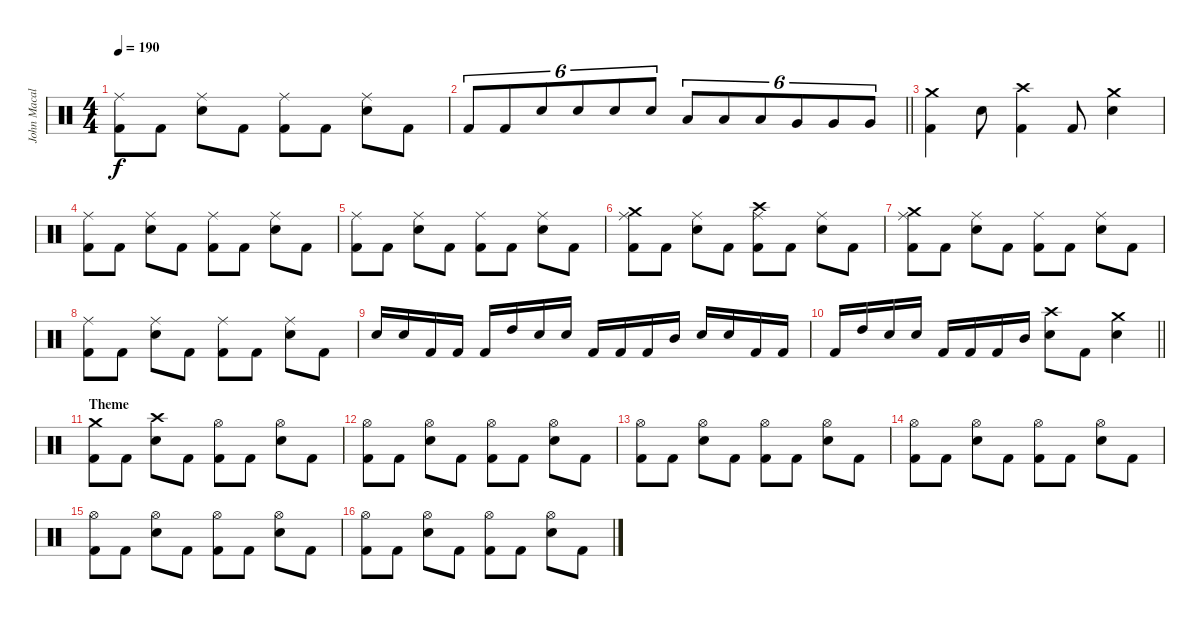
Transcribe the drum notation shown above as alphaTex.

\track ("John Macaluso" "John Macal") {instrument percussion}
\staff {score}
\articulation defaults
\ts (4 4)
\tempo 190
\clef neutral
\ks c
("Ride (middle)" "Kick (hit) 2").8{dy f} "Kick (hit) 2".8 ("Ride (middle)" "Snare (hit) 2").8 "Kick (hit) 2".8 ("Ride (middle)" "Kick (hit) 2").8 "Kick (hit) 2".8 ("Ride (middle)" "Snare (hit) 2").8 "Kick (hit) 2".8 |
\barLineRight lightlight "Kick (hit) 2".8{tu (6 4)} "Kick (hit) 2".8{tu (6 4)} "Snare (hit) 2".8{tu (6 4)} "Snare (hit) 2".8{tu (6 4)} "Snare (hit) 2".8{tu (6 4)} "Snare (hit) 2".8{tu (6 4)} "Low Tom (hit)".8{tu (6 4)} "Low Tom (hit)".8{tu (6 4)} "Low Tom (hit)".8{tu (6 4)} "Very Low Tom (hit)".8{tu (6 4)} "Very Low Tom (hit)".8{tu (6 4)} "Very Low Tom (hit)".8{tu (6 4)}
|
("Crash medium (hit)" "Kick (hit) 2").4 "Snare (hit) 2".8 ("Crash high (hit)" "Kick (hit) 2").4 "Kick (hit) 2".8 ("Crash medium (hit)" "Snare (hit) 2").4 |
("Ride (middle)" "Kick (hit) 2").8 "Kick (hit) 2".8 ("Ride (middle)" "Snare (hit) 2").8 "Kick (hit) 2".8 ("Ride (middle)" "Kick (hit) 2").8 "Kick (hit) 2".8 ("Ride (middle)" "Snare (hit) 2").8 "Kick (hit) 2".8 |
("Ride (middle)" "Kick (hit) 2").8 "Kick (hit) 2".8 ("Ride (middle)" "Snare (hit) 2").8 "Kick (hit) 2".8 ("Ride (middle)" "Kick (hit) 2").8 "Kick (hit) 2".8 ("Ride (middle)" "Snare (hit) 2").8 "Kick (hit) 2".8 |
("Crash medium (hit)" "Ride (middle)" "Kick (hit) 2").8 "Kick (hit) 2".8 ("Ride (middle)" "Snare (hit) 2").8 "Kick (hit) 2".8 ("Crash high (hit)" "Ride (middle)" "Kick (hit) 2").8 "Kick (hit) 2".8 ("Ride (middle)" "Snare (hit) 2").8 "Kick (hit) 2".8 |
("Crash medium (hit)" "Ride (middle)" "Kick (hit) 2").8 "Kick (hit) 2".8 ("Ride (middle)" "Snare (hit) 2").8 "Kick (hit) 2".8 ("Ride (middle)" "Kick (hit) 2").8 "Kick (hit) 2".8 ("Ride (middle)" "Snare (hit) 2").8 "Kick (hit) 2".8 |
("Ride (middle)" "Kick (hit) 2").8 "Kick (hit) 2".8 ("Ride (middle)" "Snare (hit) 2").8 "Kick (hit) 2".8 ("Ride (middle)" "Kick (hit) 2").8 "Kick (hit) 2".8 ("Ride (middle)" "Snare (hit) 2").8 "Kick (hit) 2".8 |
"Snare (hit) 2".16 "Snare (hit) 2".16 "Kick (hit) 2".16 "Kick (hit) 2".16 "Kick (hit) 2".16 "High Tom (hit)".16 "Snare (hit) 2".16 "Snare (hit) 2".16 "Kick (hit) 2".16 "Kick (hit) 2".16 "Kick (hit) 2".16 "Mid Tom (hit)".16 "Snare (hit) 2".16 "Snare (hit) 2".16 "Kick (hit) 2".16 "Kick (hit) 2".16 |
\barLineRight lightlight "Kick (hit) 2".16 "High Tom (hit)".16 "Snare (hit) 2".16 "Snare (hit) 2".16 "Kick (hit) 2".16 "Kick (hit) 2".16 "Kick (hit) 2".16 "Mid Tom (hit)".16
("Crash high (hit)" "Snare (hit) 2").8 "Kick (hit) 2".8 ("Crash medium (hit)" "Snare (hit) 2").4 |
\section ("" "Theme")
("Crash medium (hit)" "Kick (hit) 2").8 "Kick (hit) 2".8 ("Crash high (hit)" "Snare (hit) 2").8 "Kick (hit) 2".8 ("Hi-Hat (open)" "Kick (hit) 2").8 "Kick (hit) 2".8 ("Hi-Hat (open)" "Snare (hit) 2").8 "Kick (hit) 2".8 |
("Hi-Hat (open)" "Kick (hit) 2").8 "Kick (hit) 2".8 ("Hi-Hat (open)" "Snare (hit) 2").8 "Kick (hit) 2".8 ("Hi-Hat (open)" "Kick (hit) 2").8 "Kick (hit) 2".8 ("Hi-Hat (open)" "Snare (hit) 2").8 "Kick (hit) 2".8 |
("Hi-Hat (open)" "Kick (hit) 2").8 "Kick (hit) 2".8 ("Hi-Hat (open)" "Snare (hit) 2").8 "Kick (hit) 2".8 ("Hi-Hat (open)" "Kick (hit) 2").8 "Kick (hit) 2".8 ("Hi-Hat (open)" "Snare (hit) 2").8 "Kick (hit) 2".8 |
("Hi-Hat (open)" "Kick (hit) 2").8 "Kick (hit) 2".8 ("Hi-Hat (open)" "Snare (hit) 2").8 "Kick (hit) 2".8 ("Hi-Hat (open)" "Kick (hit) 2").8 "Kick (hit) 2".8 ("Hi-Hat (open)" "Snare (hit) 2").8 "Kick (hit) 2".8 |
("Hi-Hat (open)" "Kick (hit) 2").8 "Kick (hit) 2".8 ("Hi-Hat (open)" "Snare (hit) 2").8 "Kick (hit) 2".8 ("Hi-Hat (open)" "Kick (hit) 2").8 "Kick (hit) 2".8 ("Hi-Hat (open)" "Snare (hit) 2").8 "Kick (hit) 2".8 |
("Hi-Hat (open)" "Kick (hit) 2").8 "Kick (hit) 2".8 ("Hi-Hat (open)" "Snare (hit) 2").8 "Kick (hit) 2".8 ("Hi-Hat (open)" "Kick (hit) 2").8 "Kick (hit) 2".8 ("Hi-Hat (open)" "Snare (hit) 2").8 "Kick (hit) 2".8
